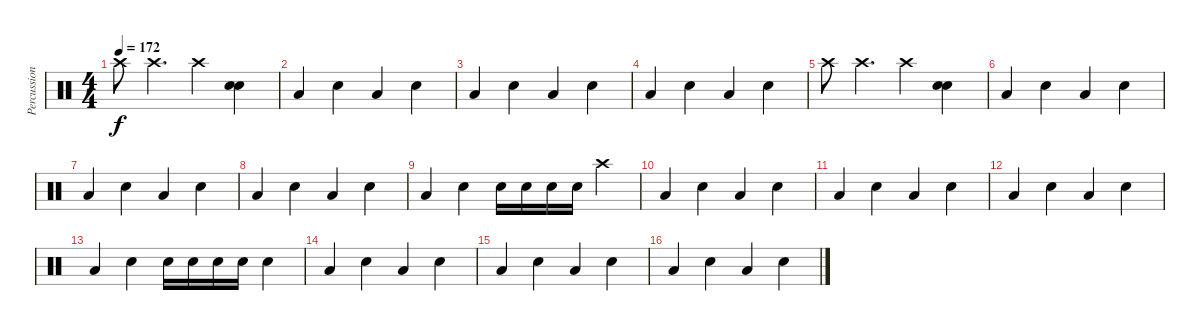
\track ("Percussion" "Percussion") {instrument percussion}
\staff {score}
\articulation defaults
\ts (4 4)
\tempo 172
\clef neutral
\ks c "Crash high (hit)".8{dy f} "Crash high (hit)".4{d} "Crash high (hit)".4
("Snare (hit) 2" "Snare (hit) 2").4 |
"Low Tom (hit)".4 "Snare (hit) 2".4 "Low Tom (hit)".4 "Snare (hit) 2".4 |
"Low Tom (hit)".4 "Snare (hit) 2".4 "Low Tom (hit)".4 "Snare (hit) 2".4 |
"Low Tom (hit)".4 "Snare (hit) 2".4 "Low Tom (hit)".4 "Snare (hit) 2".4 |
"Crash high (hit)".8 "Crash high (hit)".4{d} "Crash high (hit)".4 ("Snare (hit) 2" "Snare (hit) 2").4 |
"Low Tom (hit)".4 "Snare (hit) 2".4 "Low Tom (hit)".4 "Snare (hit) 2".4 |
"Low Tom (hit)".4 "Snare (hit) 2".4 "Low Tom (hit)".4 "Snare (hit) 2".4 |
"Low Tom (hit)".4 "Snare (hit) 2".4 "Low Tom (hit)".4 "Snare (hit) 2".4 |
"Low Tom (hit)".4 "Snare (hit) 2".4 "Snare (hit) 2".16 "Snare (hit) 2".16 "Snare (hit) 2".16 "Snare (hit) 2".16 "Crash high (hit)".4 |
"Low Tom (hit)".4 "Snare (hit) 2".4 "Low Tom (hit)".4 "Snare (hit) 2".4 |
"Low Tom (hit)".4 "Snare (hit) 2".4 "Low Tom (hit)".4 "Snare (hit) 2".4 |
"Low Tom (hit)".4 "Snare (hit) 2".4 "Low Tom (hit)".4 "Snare (hit) 2".4 |
"Low Tom (hit)".4 "Snare (hit) 2".4 "Snare (hit) 2".16 "Snare (hit) 2".16 "Snare (hit) 2".16 "Snare (hit) 2".16 "Snare (hit) 2".4 |
"Low Tom (hit)".4 "Snare (hit) 2".4 "Low Tom (hit)".4 "Snare (hit) 2".4 |
"Low Tom (hit)".4 "Snare (hit) 2".4 "Low Tom (hit)".4 "Snare (hit) 2".4 |
"Low Tom (hit)".4 "Snare (hit) 2".4 "Low Tom (hit)".4 "Snare (hit) 2".4
